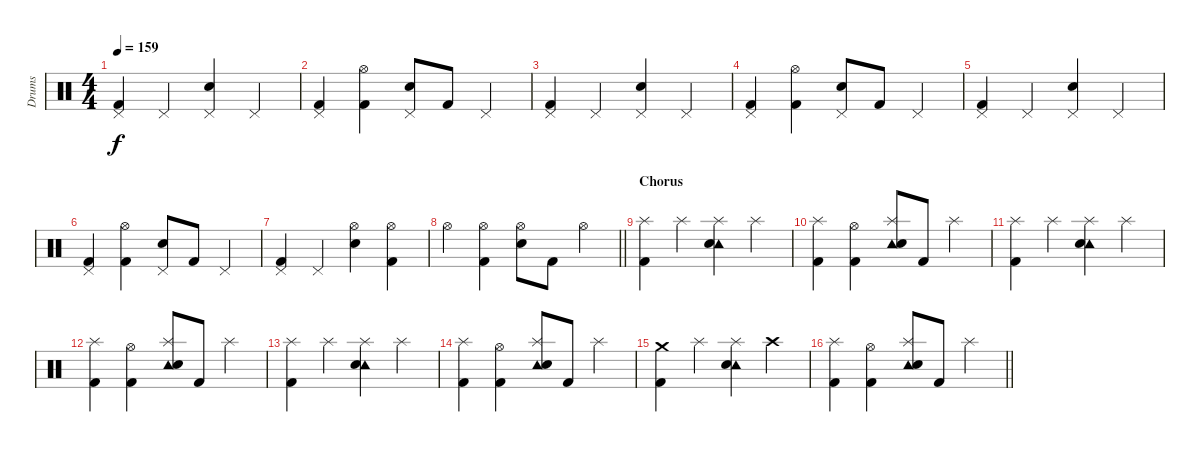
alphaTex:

\track ("Drums" "Drums") {instrument percussion}
\staff {score}
\articulation defaults
\ts (4 4)
\tempo 159
\clef neutral
\ks c
("Pedal Hi-Hat (hit)" "Kick (hit) 2").4{dy f} "Pedal Hi-Hat (hit)".4 ("Pedal Hi-Hat (hit)" "Snare (hit) 2").4 "Pedal Hi-Hat (hit)".4 |
("Pedal Hi-Hat (hit)" "Kick (hit) 2").4 ("Hi-Hat (open)" "Kick (hit) 2").4 ("Pedal Hi-Hat (hit)" "Snare (hit) 2").8 "Kick (hit) 2".8 "Pedal Hi-Hat (hit)".4 |
("Pedal Hi-Hat (hit)" "Kick (hit) 2").4 "Pedal Hi-Hat (hit)".4 ("Pedal Hi-Hat (hit)" "Snare (hit) 2").4 "Pedal Hi-Hat (hit)".4 |
("Pedal Hi-Hat (hit)" "Kick (hit) 2").4 ("Hi-Hat (open)" "Kick (hit) 2").4 ("Pedal Hi-Hat (hit)" "Snare (hit) 2").8 "Kick (hit) 2".8 "Pedal Hi-Hat (hit)".4 |
("Pedal Hi-Hat (hit)" "Kick (hit) 2").4 "Pedal Hi-Hat (hit)".4 ("Pedal Hi-Hat (hit)" "Snare (hit) 2").4 "Pedal Hi-Hat (hit)".4 |
("Pedal Hi-Hat (hit)" "Kick (hit) 2").4 ("Hi-Hat (open)" "Kick (hit) 2").4 ("Pedal Hi-Hat (hit)" "Snare (hit) 2").8 "Kick (hit) 2".8 "Pedal Hi-Hat (hit)".4 |
("Pedal Hi-Hat (hit)" "Kick (hit) 2").4 "Pedal Hi-Hat (hit)".4 ("Hi-Hat (open)" "Snare (hit) 2").4 ("Hi-Hat (open)" "Kick (hit) 2").4 |
\barLineRight lightlight "Hi-Hat (open)".4
("Hi-Hat (open)" "Kick (hit) 2").4 ("Hi-Hat (open)" "Snare (hit) 2").8 "Kick (hit) 2".8 "Hi-Hat (open)".4 |
\section ("" "Chorus")
("Splash (hit)" "Kick (hit) 2").4 "Splash (hit)".4 ("Splash (hit)" "Tambourine (hit)" "Snare (hit) 2").4 "Splash (hit)".4 |
("Splash (hit)" "Kick (hit) 2").4 ("Hi-Hat (open)" "Kick (hit) 2").4 ("Splash (hit)" "Tambourine (hit)" "Snare (hit) 2").8 "Kick (hit) 2".8 "Splash (hit)".4 |
("Splash (hit)" "Kick (hit) 2").4 "Splash (hit)".4 ("Splash (hit)" "Tambourine (hit)" "Snare (hit) 2").4 "Splash (hit)".4 |
("Splash (hit)" "Kick (hit) 2").4 ("Hi-Hat (open)" "Kick (hit) 2").4 ("Splash (hit)" "Tambourine (hit)" "Snare (hit) 2").8 "Kick (hit) 2".8 "Splash (hit)".4 |
("Splash (hit)" "Kick (hit) 2").4 "Splash (hit)".4 ("Splash (hit)" "Tambourine (hit)" "Snare (hit) 2").4 "Splash (hit)".4 |
("Splash (hit)" "Kick (hit) 2").4 ("Hi-Hat (open)" "Kick (hit) 2").4 ("Splash (hit)" "Tambourine (hit)" "Snare (hit) 2").8 "Kick (hit) 2".8 "Splash (hit)".4 |
("Crash medium (hit)" "Kick (hit) 2").4 "Splash (hit)".4 ("Splash (hit)" "Tambourine (hit)" "Snare (hit) 2").4 "Crash high (hit)".4 |
\barLineRight lightlight
("Splash (hit)" "Kick (hit) 2").4 ("Hi-Hat (open)" "Kick (hit) 2").4 ("Splash (hit)" "Tambourine (hit)" "Snare (hit) 2").8 "Kick (hit) 2".8 "Splash (hit)".4
